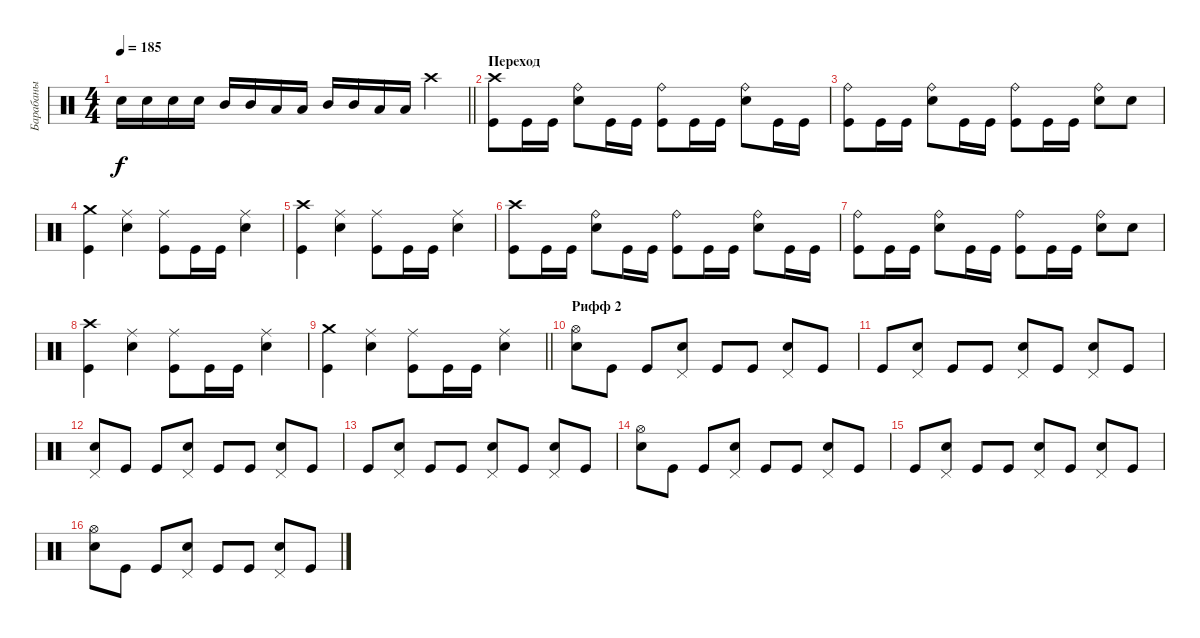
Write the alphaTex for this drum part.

\track ("Барабаны" "Барабаны") {instrument percussion}
\staff {score}
\articulation defaults
\ts (4 4)
\tempo 185
\clef neutral
\barLineRight lightlight
\ks c "Snare (hit) 2".16{dy f} "Snare (hit) 2".16 "Snare (hit) 2".16 "Snare (hit) 2".16 "Mid Tom (hit)".16 "Mid Tom (hit)".16 "Low Tom (hit)".16 "Low Tom (hit)".16 "Mid Tom (hit)".16 "Mid Tom (hit)".16 "Low Tom (hit)".16 "Low Tom (hit)".16 "Crash high (hit)".4
|
\section ("" "Переход")
("Kick (hit)" "Crash high (hit)").8 "Kick (hit)".16 "Kick (hit)".16 ("Snare (hit) 2" "Ride (bell)").8 "Kick (hit)".16 "Kick (hit)".16 ("Kick (hit)" "Ride (bell)").8 "Kick (hit)".16 "Kick (hit)".16 ("Snare (hit) 2" "Ride (bell)").8 "Kick (hit)".16 "Kick (hit)".16 |
("Kick (hit)" "Ride (bell)").8 "Kick (hit)".16 "Kick (hit)".16 ("Snare (hit) 2" "Ride (bell)").8 "Kick (hit)".16 "Kick (hit)".16 ("Kick (hit)" "Ride (bell)").8 "Kick (hit)".16 "Kick (hit)".16 ("Snare (hit) 2" "Ride (bell)").8 "Snare (hit) 2".8 |
("Kick (hit)" "Crash medium (hit)").4 ("Snare (hit) 2" "Ride (middle)").4 ("Kick (hit)" "Ride (middle)").8 "Kick (hit)".16 "Kick (hit)".16 ("Snare (hit) 2" "Ride (middle)").4 |
("Kick (hit)" "Crash high (hit)").4 ("Snare (hit) 2" "Ride (middle)").4 ("Kick (hit)" "Ride (middle)").8 "Kick (hit)".16 "Kick (hit)".16 ("Snare (hit) 2" "Ride (middle)").4 |
("Kick (hit)" "Crash high (hit)").8 "Kick (hit)".16 "Kick (hit)".16 ("Snare (hit) 2" "Ride (bell)").8 "Kick (hit)".16 "Kick (hit)".16 ("Kick (hit)" "Ride (bell)").8 "Kick (hit)".16 "Kick (hit)".16 ("Snare (hit) 2" "Ride (bell)").8 "Kick (hit)".16 "Kick (hit)".16 |
("Kick (hit)" "Ride (bell)").8 "Kick (hit)".16 "Kick (hit)".16 ("Snare (hit) 2" "Ride (bell)").8 "Kick (hit)".16 "Kick (hit)".16 ("Kick (hit)" "Ride (bell)").8 "Kick (hit)".16 "Kick (hit)".16 ("Snare (hit) 2" "Ride (bell)").8 "Snare (hit) 2".8 |
("Kick (hit)" "Crash high (hit)").4 ("Snare (hit) 2" "Ride (middle)").4 ("Kick (hit)" "Ride (middle)").8 "Kick (hit)".16 "Kick (hit)".16 ("Snare (hit) 2" "Ride (middle)").4 |
\barLineRight lightlight
("Kick (hit)" "Crash medium (hit)").4 ("Snare (hit) 2" "Ride (middle)").4 ("Kick (hit)" "Ride (middle)").8 "Kick (hit)".16 "Kick (hit)".16 ("Snare (hit) 2" "Ride (middle)").4 |
\section ("" "Рифф 2")
("Snare (hit) 2" "Hi-Hat (open)").8 "Kick (hit)".8 "Kick (hit)".8 ("Snare (hit) 2" "Pedal Hi-Hat (hit)").8 "Kick (hit)".8 "Kick (hit)".8 ("Snare (hit) 2" "Pedal Hi-Hat (hit)").8 "Kick (hit)".8 |
"Kick (hit)".8 ("Snare (hit) 2" "Pedal Hi-Hat (hit)").8 "Kick (hit)".8 "Kick (hit)".8 ("Snare (hit) 2" "Pedal Hi-Hat (hit)").8 "Kick (hit)".8 ("Snare (hit) 2" "Pedal Hi-Hat (hit)").8 "Kick (hit)".8 |
("Snare (hit) 2" "Pedal Hi-Hat (hit)").8 "Kick (hit)".8 "Kick (hit)".8 ("Snare (hit) 2" "Pedal Hi-Hat (hit)").8 "Kick (hit)".8 "Kick (hit)".8 ("Snare (hit) 2" "Pedal Hi-Hat (hit)").8 "Kick (hit)".8 |
"Kick (hit)".8 ("Snare (hit) 2" "Pedal Hi-Hat (hit)").8 "Kick (hit)".8 "Kick (hit)".8 ("Snare (hit) 2" "Pedal Hi-Hat (hit)").8 "Kick (hit)".8 ("Snare (hit) 2" "Pedal Hi-Hat (hit)").8 "Kick (hit)".8 |
("Snare (hit) 2" "Hi-Hat (open)").8 "Kick (hit)".8 "Kick (hit)".8 ("Snare (hit) 2" "Pedal Hi-Hat (hit)").8 "Kick (hit)".8 "Kick (hit)".8 ("Snare (hit) 2" "Pedal Hi-Hat (hit)").8 "Kick (hit)".8 |
"Kick (hit)".8 ("Snare (hit) 2" "Pedal Hi-Hat (hit)").8 "Kick (hit)".8 "Kick (hit)".8 ("Snare (hit) 2" "Pedal Hi-Hat (hit)").8 "Kick (hit)".8 ("Snare (hit) 2" "Pedal Hi-Hat (hit)").8 "Kick (hit)".8 |
("Snare (hit) 2" "Hi-Hat (open)").8 "Kick (hit)".8 "Kick (hit)".8 ("Snare (hit) 2" "Pedal Hi-Hat (hit)").8 "Kick (hit)".8 "Kick (hit)".8 ("Snare (hit) 2" "Pedal Hi-Hat (hit)").8 "Kick (hit)".8
